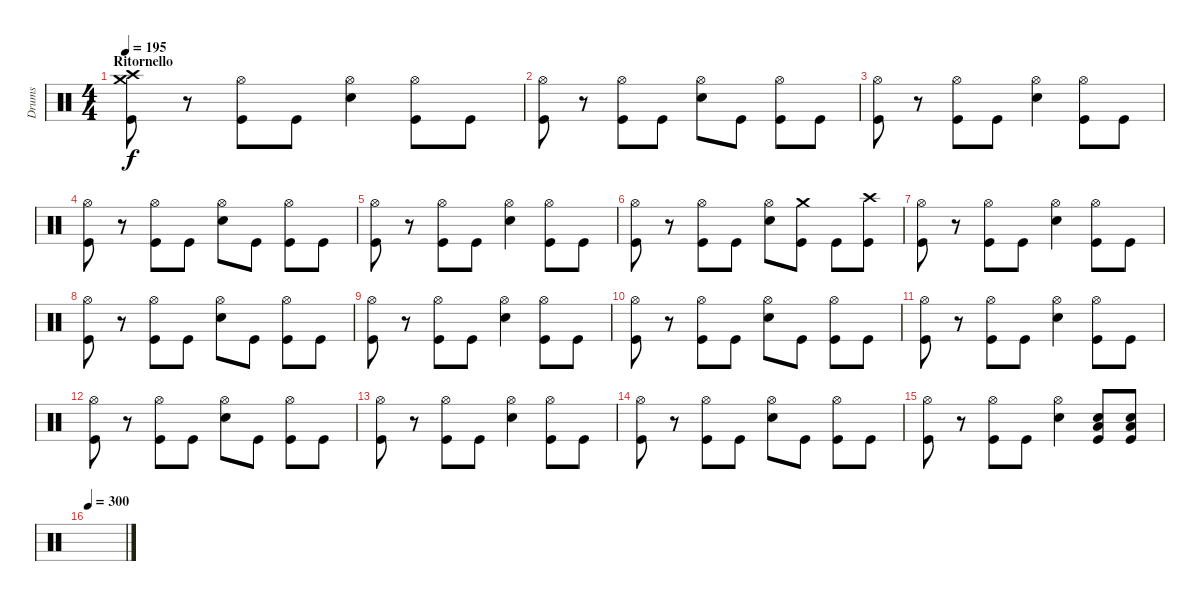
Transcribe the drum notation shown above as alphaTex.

\track ("Drums" "Drums") {instrument percussion}
\staff {score}
\articulation defaults
\ts (4 4)
\section ("" "Ritornello")
\tempo 195
\clef neutral
\ks c
("Crash high (hit)" "Crash medium (hit)" "Kick (hit)").8{dy f} r.8 ("Hi-Hat (open)" "Kick (hit)").8 "Kick (hit)".8 ("Hi-Hat (open)" "Electric Snare (hit)").4 ("Hi-Hat (open)" "Kick (hit)").8 "Kick (hit)".8 |
("Hi-Hat (open)" "Kick (hit)").8 r.8 ("Hi-Hat (open)" "Kick (hit)").8 "Kick (hit)".8 ("Hi-Hat (open)" "Electric Snare (hit)").8 "Kick (hit)".8 ("Hi-Hat (open)" "Kick (hit)").8 "Kick (hit)".8 |
("Hi-Hat (open)" "Kick (hit)").8 r.8 ("Hi-Hat (open)" "Kick (hit)").8 "Kick (hit)".8 ("Hi-Hat (open)" "Electric Snare (hit)").4 ("Hi-Hat (open)" "Kick (hit)").8 "Kick (hit)".8 |
("Hi-Hat (open)" "Kick (hit)").8 r.8 ("Hi-Hat (open)" "Kick (hit)").8 "Kick (hit)".8 ("Hi-Hat (open)" "Electric Snare (hit)").8 "Kick (hit)".8 ("Hi-Hat (open)" "Kick (hit)").8 "Kick (hit)".8 |
("Hi-Hat (open)" "Kick (hit)").8 r.8 ("Hi-Hat (open)" "Kick (hit)").8 "Kick (hit)".8 ("Hi-Hat (open)" "Electric Snare (hit)").4 ("Hi-Hat (open)" "Kick (hit)").8 "Kick (hit)".8 |
("Hi-Hat (open)" "Kick (hit)").8 r.8 ("Hi-Hat (open)" "Kick (hit)").8 "Kick (hit)".8 ("Hi-Hat (open)" "Electric Snare (hit)").8 ("Crash medium (hit)" "Kick (hit)").8 "Kick (hit)".8 ("Crash high (hit)" "Kick (hit)").8 |
("Hi-Hat (open)" "Kick (hit)").8 r.8 ("Hi-Hat (open)" "Kick (hit)").8 "Kick (hit)".8 ("Hi-Hat (open)" "Electric Snare (hit)").4 ("Hi-Hat (open)" "Kick (hit)").8 "Kick (hit)".8 |
("Hi-Hat (open)" "Kick (hit)").8 r.8 ("Hi-Hat (open)" "Kick (hit)").8 "Kick (hit)".8 ("Hi-Hat (open)" "Electric Snare (hit)").8 "Kick (hit)".8 ("Hi-Hat (open)" "Kick (hit)").8 "Kick (hit)".8 |
("Hi-Hat (open)" "Kick (hit)").8 r.8 ("Hi-Hat (open)" "Kick (hit)").8 "Kick (hit)".8 ("Hi-Hat (open)" "Electric Snare (hit)").4 ("Hi-Hat (open)" "Kick (hit)").8 "Kick (hit)".8 |
("Hi-Hat (open)" "Kick (hit)").8 r.8 ("Hi-Hat (open)" "Kick (hit)").8 "Kick (hit)".8 ("Hi-Hat (open)" "Electric Snare (hit)").8 "Kick (hit)".8 ("Hi-Hat (open)" "Kick (hit)").8 "Kick (hit)".8 |
("Hi-Hat (open)" "Kick (hit)").8 r.8 ("Hi-Hat (open)" "Kick (hit)").8 "Kick (hit)".8 ("Hi-Hat (open)" "Electric Snare (hit)").4 ("Hi-Hat (open)" "Kick (hit)").8 "Kick (hit)".8 |
("Hi-Hat (open)" "Kick (hit)").8 r.8 ("Hi-Hat (open)" "Kick (hit)").8 "Kick (hit)".8 ("Hi-Hat (open)" "Electric Snare (hit)").8 "Kick (hit)".8 ("Hi-Hat (open)" "Kick (hit)").8 "Kick (hit)".8 |
("Hi-Hat (open)" "Kick (hit)").8 r.8 ("Hi-Hat (open)" "Kick (hit)").8 "Kick (hit)".8 ("Hi-Hat (open)" "Electric Snare (hit)").4 ("Hi-Hat (open)" "Kick (hit)").8 "Kick (hit)".8 |
("Hi-Hat (open)" "Kick (hit)").8 r.8 ("Hi-Hat (open)" "Kick (hit)").8 "Kick (hit)".8 ("Hi-Hat (open)" "Electric Snare (hit)").8 "Kick (hit)".8 ("Hi-Hat (open)" "Kick (hit)").8 "Kick (hit)".8 |
("Hi-Hat (open)" "Kick (hit)").8 r.8 ("Hi-Hat (open)" "Kick (hit)").8 "Kick (hit)".8 ("Hi-Hat (open)" "Electric Snare (hit)").4 ("Electric Snare (hit)" "Low Floor Tom (hit)" "Kick (hit)").8 ("Electric Snare (hit)" "Low Floor Tom (hit)" "Kick (hit)").8 |
\tempo 300
